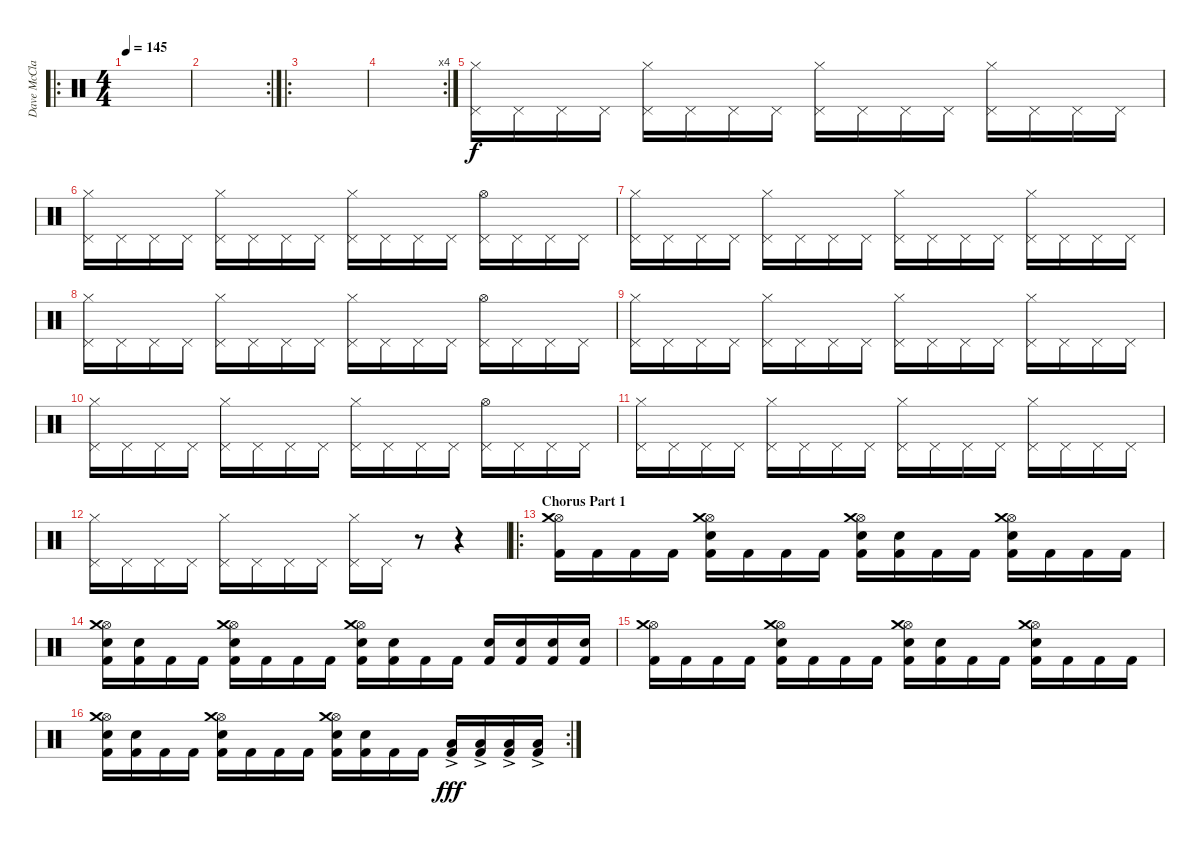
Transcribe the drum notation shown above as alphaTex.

\track ("Dave McClain" "Dave McCla") {instrument percussion}
\staff {score}
\articulation defaults
\ro
\ts (4 4)
\tempo 145
\clef neutral
\ks c
|
\rc 2
|
\ro
|
\rc 4
|
("Pedal Hi-Hat (hit)" "Hi-Hat (closed)").16 "Pedal Hi-Hat (hit)".16 "Pedal Hi-Hat (hit)".16 "Pedal Hi-Hat (hit)".16 ("Pedal Hi-Hat (hit)" "Hi-Hat (closed)").16 "Pedal Hi-Hat (hit)".16 "Pedal Hi-Hat (hit)".16 "Pedal Hi-Hat (hit)".16 ("Pedal Hi-Hat (hit)" "Hi-Hat (closed)").16 "Pedal Hi-Hat (hit)".16 "Pedal Hi-Hat (hit)".16 "Pedal Hi-Hat (hit)".16 ("Pedal Hi-Hat (hit)" "Hi-Hat (closed)").16 "Pedal Hi-Hat (hit)".16 "Pedal Hi-Hat (hit)".16 "Pedal Hi-Hat (hit)".16 |
("Pedal Hi-Hat (hit)" "Hi-Hat (closed)").16 "Pedal Hi-Hat (hit)".16 "Pedal Hi-Hat (hit)".16 "Pedal Hi-Hat (hit)".16 ("Pedal Hi-Hat (hit)" "Hi-Hat (closed)").16 "Pedal Hi-Hat (hit)".16 "Pedal Hi-Hat (hit)".16 "Pedal Hi-Hat (hit)".16 ("Pedal Hi-Hat (hit)" "Hi-Hat (closed)").16 "Pedal Hi-Hat (hit)".16 "Pedal Hi-Hat (hit)".16 "Pedal Hi-Hat (hit)".16 ("Pedal Hi-Hat (hit)" "Hi-Hat (open)").16 "Pedal Hi-Hat (hit)".16 "Pedal Hi-Hat (hit)".16 "Pedal Hi-Hat (hit)".16 |
("Pedal Hi-Hat (hit)" "Hi-Hat (closed)").16 "Pedal Hi-Hat (hit)".16 "Pedal Hi-Hat (hit)".16 "Pedal Hi-Hat (hit)".16 ("Pedal Hi-Hat (hit)" "Hi-Hat (closed)").16 "Pedal Hi-Hat (hit)".16 "Pedal Hi-Hat (hit)".16 "Pedal Hi-Hat (hit)".16 ("Pedal Hi-Hat (hit)" "Hi-Hat (closed)").16 "Pedal Hi-Hat (hit)".16 "Pedal Hi-Hat (hit)".16 "Pedal Hi-Hat (hit)".16 ("Pedal Hi-Hat (hit)" "Hi-Hat (closed)").16 "Pedal Hi-Hat (hit)".16 "Pedal Hi-Hat (hit)".16 "Pedal Hi-Hat (hit)".16 |
("Pedal Hi-Hat (hit)" "Hi-Hat (closed)").16 "Pedal Hi-Hat (hit)".16 "Pedal Hi-Hat (hit)".16 "Pedal Hi-Hat (hit)".16 ("Pedal Hi-Hat (hit)" "Hi-Hat (closed)").16 "Pedal Hi-Hat (hit)".16 "Pedal Hi-Hat (hit)".16 "Pedal Hi-Hat (hit)".16 ("Pedal Hi-Hat (hit)" "Hi-Hat (closed)").16 "Pedal Hi-Hat (hit)".16 "Pedal Hi-Hat (hit)".16 "Pedal Hi-Hat (hit)".16 ("Pedal Hi-Hat (hit)" "Hi-Hat (open)").16 "Pedal Hi-Hat (hit)".16 "Pedal Hi-Hat (hit)".16 "Pedal Hi-Hat (hit)".16 |
("Pedal Hi-Hat (hit)" "Hi-Hat (closed)").16 "Pedal Hi-Hat (hit)".16 "Pedal Hi-Hat (hit)".16 "Pedal Hi-Hat (hit)".16 ("Pedal Hi-Hat (hit)" "Hi-Hat (closed)").16 "Pedal Hi-Hat (hit)".16 "Pedal Hi-Hat (hit)".16 "Pedal Hi-Hat (hit)".16 ("Pedal Hi-Hat (hit)" "Hi-Hat (closed)").16 "Pedal Hi-Hat (hit)".16 "Pedal Hi-Hat (hit)".16 "Pedal Hi-Hat (hit)".16 ("Pedal Hi-Hat (hit)" "Hi-Hat (closed)").16 "Pedal Hi-Hat (hit)".16 "Pedal Hi-Hat (hit)".16 "Pedal Hi-Hat (hit)".16 |
("Pedal Hi-Hat (hit)" "Hi-Hat (closed)").16 "Pedal Hi-Hat (hit)".16 "Pedal Hi-Hat (hit)".16 "Pedal Hi-Hat (hit)".16 ("Pedal Hi-Hat (hit)" "Hi-Hat (closed)").16 "Pedal Hi-Hat (hit)".16 "Pedal Hi-Hat (hit)".16 "Pedal Hi-Hat (hit)".16 ("Pedal Hi-Hat (hit)" "Hi-Hat (closed)").16 "Pedal Hi-Hat (hit)".16 "Pedal Hi-Hat (hit)".16 "Pedal Hi-Hat (hit)".16 ("Pedal Hi-Hat (hit)" "Hi-Hat (open)").16 "Pedal Hi-Hat (hit)".16 "Pedal Hi-Hat (hit)".16 "Pedal Hi-Hat (hit)".16 |
("Pedal Hi-Hat (hit)" "Hi-Hat (closed)").16 "Pedal Hi-Hat (hit)".16 "Pedal Hi-Hat (hit)".16 "Pedal Hi-Hat (hit)".16 ("Pedal Hi-Hat (hit)" "Hi-Hat (closed)").16 "Pedal Hi-Hat (hit)".16 "Pedal Hi-Hat (hit)".16 "Pedal Hi-Hat (hit)".16 ("Pedal Hi-Hat (hit)" "Hi-Hat (closed)").16 "Pedal Hi-Hat (hit)".16 "Pedal Hi-Hat (hit)".16 "Pedal Hi-Hat (hit)".16 ("Pedal Hi-Hat (hit)" "Hi-Hat (closed)").16 "Pedal Hi-Hat (hit)".16 "Pedal Hi-Hat (hit)".16 "Pedal Hi-Hat (hit)".16 |
("Pedal Hi-Hat (hit)" "Hi-Hat (closed)").16 "Pedal Hi-Hat (hit)".16 "Pedal Hi-Hat (hit)".16 "Pedal Hi-Hat (hit)".16 ("Pedal Hi-Hat (hit)" "Hi-Hat (closed)").16 "Pedal Hi-Hat (hit)".16 "Pedal Hi-Hat (hit)".16 "Pedal Hi-Hat (hit)".16 ("Pedal Hi-Hat (hit)" "Hi-Hat (closed)").16 "Pedal Hi-Hat (hit)".16 r.8 r.4 |
\ro
\section ("" "Chorus Part 1")
("Hi-Hat (open)" "Crash medium (hit)" "Kick (hit) 2").16{dy f} "Kick (hit) 2".16 "Kick (hit) 2".16 "Kick (hit) 2".16 ("Hi-Hat (open)" "Crash medium (hit)" "Snare (hit) 2" "Kick (hit) 2").16 "Kick (hit) 2".16 "Kick (hit) 2".16 "Kick (hit) 2".16 ("Hi-Hat (open)" "Crash medium (hit)" "Snare (hit) 2" "Kick (hit) 2").16 ("Snare (hit) 2" "Kick (hit) 2").16 "Kick (hit) 2".16 "Kick (hit) 2".16 ("Hi-Hat (open)" "Crash medium (hit)" "Snare (hit) 2" "Kick (hit) 2").16 "Kick (hit) 2".16 "Kick (hit) 2".16 "Kick (hit) 2".16 |
("Hi-Hat (open)" "Crash medium (hit)" "Snare (hit) 2" "Kick (hit) 2").16 ("Snare (hit) 2" "Kick (hit) 2").16 "Kick (hit) 2".16 "Kick (hit) 2".16 ("Hi-Hat (open)" "Crash medium (hit)" "Snare (hit) 2" "Kick (hit) 2").16 "Kick (hit) 2".16 "Kick (hit) 2".16 "Kick (hit) 2".16 ("Hi-Hat (open)" "Crash medium (hit)" "Snare (hit) 2" "Kick (hit) 2").16 ("Snare (hit) 2" "Kick (hit) 2").16 "Kick (hit) 2".16 "Kick (hit) 2".16 ("Snare (hit) 2" "Kick (hit) 2").16 ("Snare (hit) 2" "Kick (hit) 2").16 ("Snare (hit) 2" "Kick (hit) 2").16 ("Snare (hit) 2" "Kick (hit) 2").16 |
("Hi-Hat (open)" "Crash medium (hit)" "Kick (hit) 2").16 "Kick (hit) 2".16 "Kick (hit) 2".16 "Kick (hit) 2".16 ("Hi-Hat (open)" "Crash medium (hit)" "Snare (hit) 2" "Kick (hit) 2").16 "Kick (hit) 2".16 "Kick (hit) 2".16 "Kick (hit) 2".16 ("Hi-Hat (open)" "Crash medium (hit)" "Snare (hit) 2" "Kick (hit) 2").16 ("Snare (hit) 2" "Kick (hit) 2").16 "Kick (hit) 2".16 "Kick (hit) 2".16 ("Hi-Hat (open)" "Crash medium (hit)" "Snare (hit) 2" "Kick (hit) 2").16 "Kick (hit) 2".16 "Kick (hit) 2".16 "Kick (hit) 2".16 |
\rc 2
("Hi-Hat (open)" "Crash medium (hit)" "Snare (hit) 2" "Kick (hit) 2").16 ("Snare (hit) 2" "Kick (hit) 2").16 "Kick (hit) 2".16 "Kick (hit) 2".16 ("Hi-Hat (open)" "Crash medium (hit)" "Snare (hit) 2" "Kick (hit) 2").16 "Kick (hit) 2".16 "Kick (hit) 2".16 "Kick (hit) 2".16 ("Hi-Hat (open)" "Crash medium (hit)" "Snare (hit) 2" "Kick (hit) 2").16 ("Snare (hit) 2" "Kick (hit) 2").16 "Kick (hit) 2".16 "Kick (hit) 2".16 ("Low Tom (hit)"{ac} "Kick (hit) 2").16{dy fff} ("Low Tom (hit)"{ac} "Kick (hit) 2").16 ("Low Tom (hit)"{ac} "Kick (hit) 2").16 ("Low Tom (hit)"{ac} "Kick (hit) 2").16
